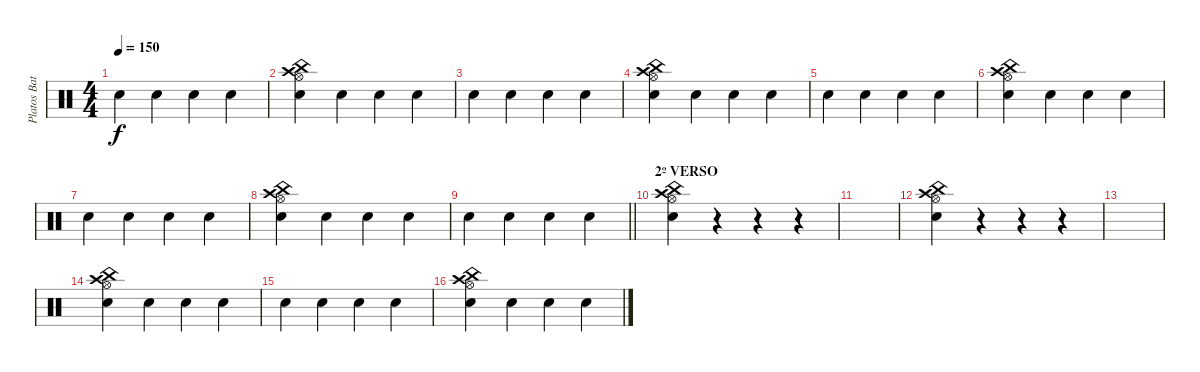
\track ("Platos Batería" "Platos Bat") {instrument percussion}
\staff {score}
\articulation defaults
\ts (4 4)
\tempo 150
\clef neutral
\ks c "Hand Clap (hit)".4{dy f} "Hand Clap (hit)".4 "Hand Clap (hit)".4 "Hand Clap (hit)".4
|
("Crash high (hit)" "China (hit)" "Hi-Hat (open)" "Hand Clap (hit)").4 "Hand Clap (hit)".4 "Hand Clap (hit)".4 "Hand Clap (hit)".4 |
"Hand Clap (hit)".4 "Hand Clap (hit)".4 "Hand Clap (hit)".4 "Hand Clap (hit)".4 |
("Crash high (hit)" "China (hit)" "Hi-Hat (open)" "Hand Clap (hit)").4 "Hand Clap (hit)".4 "Hand Clap (hit)".4 "Hand Clap (hit)".4 |
"Hand Clap (hit)".4 "Hand Clap (hit)".4 "Hand Clap (hit)".4 "Hand Clap (hit)".4 |
("Crash high (hit)" "China (hit)" "Hi-Hat (open)" "Hand Clap (hit)").4 "Hand Clap (hit)".4 "Hand Clap (hit)".4 "Hand Clap (hit)".4 |
"Hand Clap (hit)".4 "Hand Clap (hit)".4 "Hand Clap (hit)".4 "Hand Clap (hit)".4 |
("Crash high (hit)" "China (hit)" "Hi-Hat (open)" "Hand Clap (hit)").4 "Hand Clap (hit)".4 "Hand Clap (hit)".4 "Hand Clap (hit)".4 |
\barLineRight lightlight "Hand Clap (hit)".4 "Hand Clap (hit)".4 "Hand Clap (hit)".4 "Hand Clap (hit)".4
|
\section ("" "2º VERSO")
("Crash high (hit)" "China (hit)" "Hi-Hat (open)" "Hand Clap (hit)").4 r.4 r.4 r.4 |
|
("Crash high (hit)" "China (hit)" "Hi-Hat (open)" "Hand Clap (hit)").4 r.4 r.4 r.4 |
|
("Crash high (hit)" "China (hit)" "Hi-Hat (open)" "Hand Clap (hit)").4 "Hand Clap (hit)".4 "Hand Clap (hit)".4 "Hand Clap (hit)".4 |
"Hand Clap (hit)".4 "Hand Clap (hit)".4 "Hand Clap (hit)".4 "Hand Clap (hit)".4 |
("Crash high (hit)" "China (hit)" "Hi-Hat (open)" "Hand Clap (hit)").4 "Hand Clap (hit)".4 "Hand Clap (hit)".4 "Hand Clap (hit)".4
